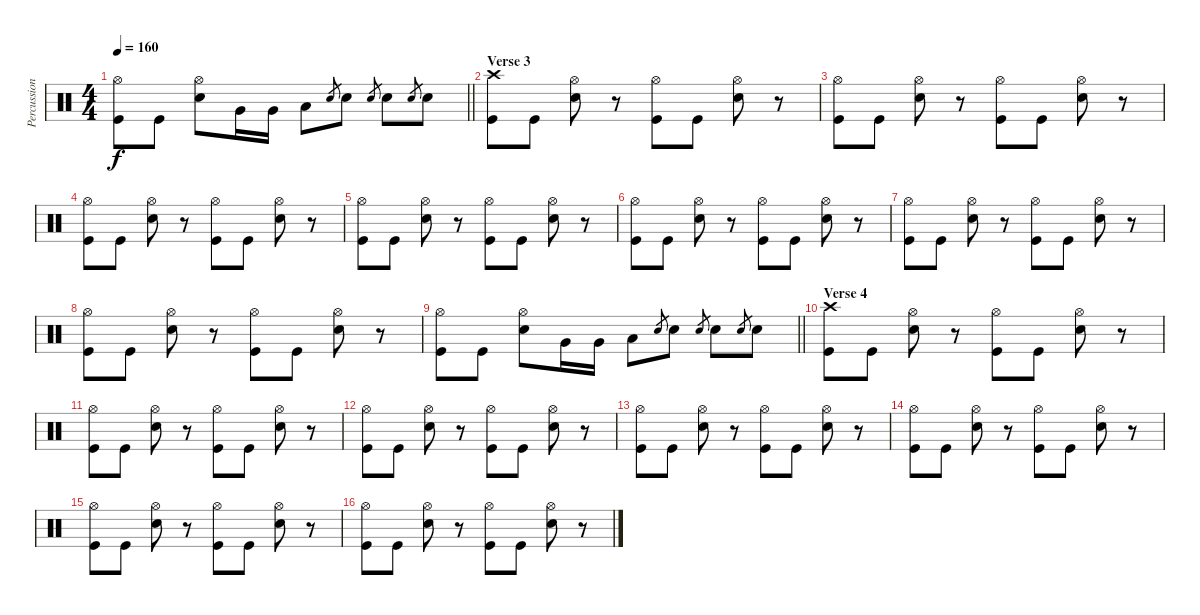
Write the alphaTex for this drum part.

\track ("Percussion" "Percussion") {instrument percussion}
\staff {score}
\articulation defaults
\ts (4 4)
\tempo 160
\clef neutral
\barLineRight lightlight
\ks c
("Hi-Hat (open)" "Kick (hit)").8{dy f} "Kick (hit)".8 ("Hi-Hat (open)" "Electric Snare (hit)").8 "Very Low Tom (hit)".16 "Very Low Tom (hit)".16 "Low Floor Tom (hit)".8 "Electric Snare (hit)".8{gr} "Electric Snare (hit)".8 "Electric Snare (hit)".8{gr} "Electric Snare (hit)".8 "Electric Snare (hit)".8{gr} "Electric Snare (hit)".8 |
\section ("" "Verse 3")
("Crash high (hit)" "Kick (hit)").8 "Kick (hit)".8 ("Hi-Hat (open)" "Electric Snare (hit)").8 r.8 ("Hi-Hat (open)" "Kick (hit)").8 "Kick (hit)".8 ("Hi-Hat (open)" "Electric Snare (hit)").8 r.8 |
("Hi-Hat (open)" "Kick (hit)").8 "Kick (hit)".8 ("Hi-Hat (open)" "Electric Snare (hit)").8 r.8 ("Hi-Hat (open)" "Kick (hit)").8 "Kick (hit)".8 ("Hi-Hat (open)" "Electric Snare (hit)").8 r.8 |
("Hi-Hat (open)" "Kick (hit)").8 "Kick (hit)".8 ("Hi-Hat (open)" "Electric Snare (hit)").8 r.8 ("Hi-Hat (open)" "Kick (hit)").8 "Kick (hit)".8 ("Hi-Hat (open)" "Electric Snare (hit)").8 r.8 |
("Hi-Hat (open)" "Kick (hit)").8 "Kick (hit)".8 ("Hi-Hat (open)" "Electric Snare (hit)").8 r.8 ("Hi-Hat (open)" "Kick (hit)").8 "Kick (hit)".8 ("Hi-Hat (open)" "Electric Snare (hit)").8 r.8 |
("Hi-Hat (open)" "Kick (hit)").8 "Kick (hit)".8 ("Hi-Hat (open)" "Electric Snare (hit)").8 r.8 ("Hi-Hat (open)" "Kick (hit)").8 "Kick (hit)".8 ("Hi-Hat (open)" "Electric Snare (hit)").8 r.8 |
("Hi-Hat (open)" "Kick (hit)").8 "Kick (hit)".8 ("Hi-Hat (open)" "Electric Snare (hit)").8 r.8 ("Hi-Hat (open)" "Kick (hit)").8 "Kick (hit)".8 ("Hi-Hat (open)" "Electric Snare (hit)").8 r.8 |
("Hi-Hat (open)" "Kick (hit)").8 "Kick (hit)".8 ("Hi-Hat (open)" "Electric Snare (hit)").8 r.8 ("Hi-Hat (open)" "Kick (hit)").8 "Kick (hit)".8 ("Hi-Hat (open)" "Electric Snare (hit)").8 r.8 |
\barLineRight lightlight
("Hi-Hat (open)" "Kick (hit)").8 "Kick (hit)".8 ("Hi-Hat (open)" "Electric Snare (hit)").8 "Very Low Tom (hit)".16 "Very Low Tom (hit)".16 "Low Floor Tom (hit)".8 "Electric Snare (hit)".8{gr} "Electric Snare (hit)".8 "Electric Snare (hit)".8{gr} "Electric Snare (hit)".8 "Electric Snare (hit)".8{gr} "Electric Snare (hit)".8 |
\section ("" "Verse 4")
("Crash high (hit)" "Kick (hit)").8 "Kick (hit)".8 ("Hi-Hat (open)" "Electric Snare (hit)").8 r.8 ("Hi-Hat (open)" "Kick (hit)").8 "Kick (hit)".8 ("Hi-Hat (open)" "Electric Snare (hit)").8 r.8 |
("Hi-Hat (open)" "Kick (hit)").8 "Kick (hit)".8 ("Hi-Hat (open)" "Electric Snare (hit)").8 r.8 ("Hi-Hat (open)" "Kick (hit)").8 "Kick (hit)".8 ("Hi-Hat (open)" "Electric Snare (hit)").8 r.8 |
("Hi-Hat (open)" "Kick (hit)").8 "Kick (hit)".8 ("Hi-Hat (open)" "Electric Snare (hit)").8 r.8 ("Hi-Hat (open)" "Kick (hit)").8 "Kick (hit)".8 ("Hi-Hat (open)" "Electric Snare (hit)").8 r.8 |
("Hi-Hat (open)" "Kick (hit)").8 "Kick (hit)".8 ("Hi-Hat (open)" "Electric Snare (hit)").8 r.8 ("Hi-Hat (open)" "Kick (hit)").8 "Kick (hit)".8 ("Hi-Hat (open)" "Electric Snare (hit)").8 r.8 |
("Hi-Hat (open)" "Kick (hit)").8 "Kick (hit)".8 ("Hi-Hat (open)" "Electric Snare (hit)").8 r.8 ("Hi-Hat (open)" "Kick (hit)").8 "Kick (hit)".8 ("Hi-Hat (open)" "Electric Snare (hit)").8 r.8 |
("Hi-Hat (open)" "Kick (hit)").8 "Kick (hit)".8 ("Hi-Hat (open)" "Electric Snare (hit)").8 r.8 ("Hi-Hat (open)" "Kick (hit)").8 "Kick (hit)".8 ("Hi-Hat (open)" "Electric Snare (hit)").8 r.8 |
("Hi-Hat (open)" "Kick (hit)").8 "Kick (hit)".8 ("Hi-Hat (open)" "Electric Snare (hit)").8 r.8 ("Hi-Hat (open)" "Kick (hit)").8 "Kick (hit)".8 ("Hi-Hat (open)" "Electric Snare (hit)").8 r.8
